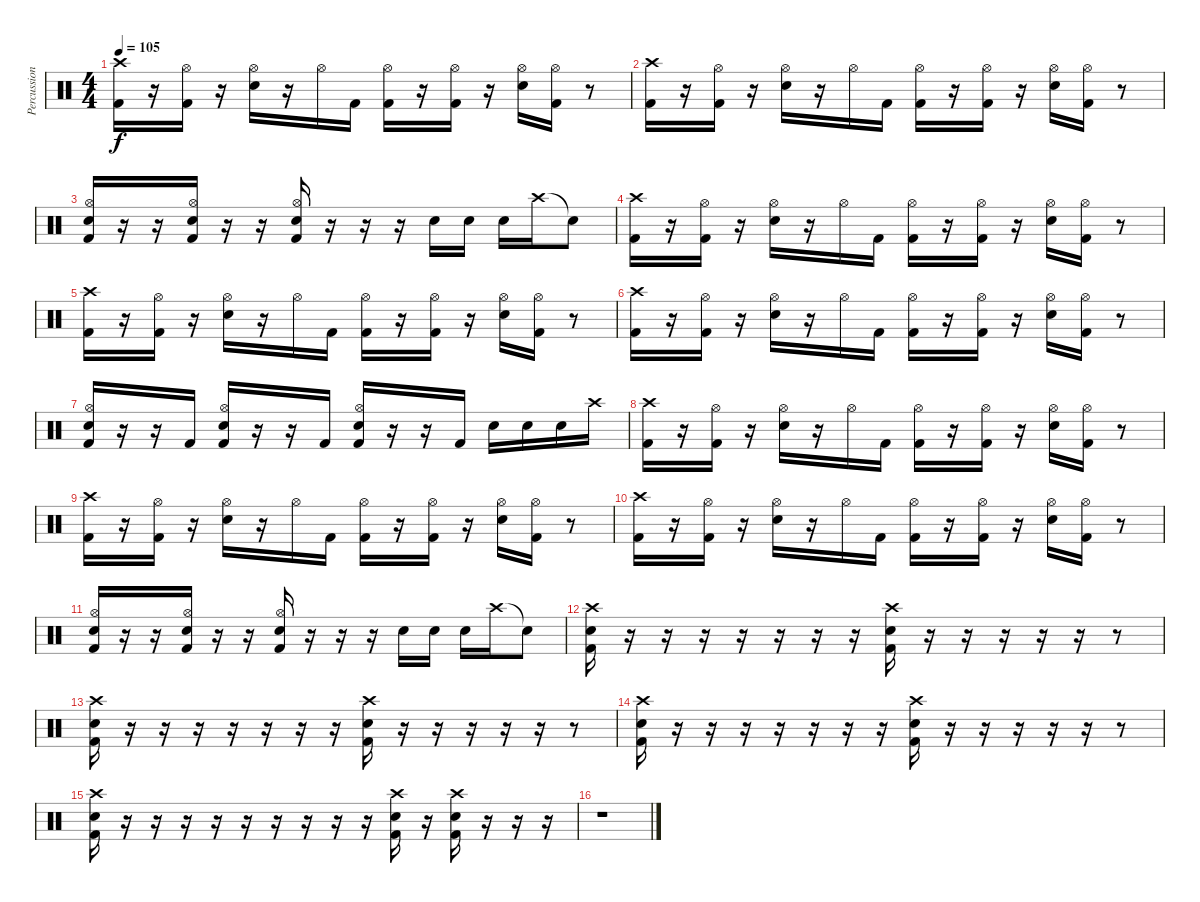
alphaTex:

\track ("Percussions" "Percussion") {instrument percussion}
\staff {score}
\articulation defaults
\ts (4 4)
\tempo 105
\clef neutral
\ks c
("Crash high (hit)" "Kick (hit) 2").16{dy f} r.16 ("Hi-Hat (open)" "Kick (hit) 2").16 r.16 ("Hi-Hat (open)" "Snare (hit) 2").16 r.16 "Hi-Hat (open)".16 "Kick (hit) 2".16 ("Kick (hit) 2" "Hi-Hat (open)").16 r.16 ("Kick (hit) 2" "Hi-Hat (open)").16 r.16 ("Hi-Hat (open)" "Snare (hit) 2").16 ("Kick (hit) 2" "Hi-Hat (open)").16 r.8 |
("Crash high (hit)" "Kick (hit) 2").16 r.16 ("Hi-Hat (open)" "Kick (hit) 2").16 r.16 ("Hi-Hat (open)" "Snare (hit) 2").16 r.16 "Hi-Hat (open)".16 "Kick (hit) 2".16 ("Kick (hit) 2" "Hi-Hat (open)").16 r.16 ("Kick (hit) 2" "Hi-Hat (open)").16 r.16 ("Hi-Hat (open)" "Snare (hit) 2").16 ("Kick (hit) 2" "Hi-Hat (open)").16 r.8 |
("Kick (hit) 2" "Snare (hit) 2" "Hi-Hat (open)").16 r.16 r.16 ("Kick (hit) 2" "Snare (hit) 2" "Hi-Hat (open)").16 r.16 r.16 ("Kick (hit) 2" "Snare (hit) 2" "Hi-Hat (open)").16 r.16 r.16 r.16 "Snare (hit) 2".16 "Snare (hit) 2".16 "Snare (hit) 2".16 "Crash high (hit)".16 "Snare (hit)"{t}.8 |
("Crash high (hit)" "Kick (hit) 2").16 r.16 ("Hi-Hat (open)" "Kick (hit) 2").16 r.16 ("Hi-Hat (open)" "Snare (hit) 2").16 r.16 "Hi-Hat (open)".16 "Kick (hit) 2".16 ("Kick (hit) 2" "Hi-Hat (open)").16 r.16 ("Kick (hit) 2" "Hi-Hat (open)").16 r.16 ("Hi-Hat (open)" "Snare (hit) 2").16 ("Kick (hit) 2" "Hi-Hat (open)").16 r.8 |
("Crash high (hit)" "Kick (hit) 2").16 r.16 ("Hi-Hat (open)" "Kick (hit) 2").16 r.16 ("Hi-Hat (open)" "Snare (hit) 2").16 r.16 "Hi-Hat (open)".16 "Kick (hit) 2".16 ("Kick (hit) 2" "Hi-Hat (open)").16 r.16 ("Kick (hit) 2" "Hi-Hat (open)").16 r.16 ("Hi-Hat (open)" "Snare (hit) 2").16 ("Kick (hit) 2" "Hi-Hat (open)").16 r.8 |
("Crash high (hit)" "Kick (hit) 2").16 r.16 ("Hi-Hat (open)" "Kick (hit) 2").16 r.16 ("Hi-Hat (open)" "Snare (hit) 2").16 r.16 "Hi-Hat (open)".16 "Kick (hit) 2".16 ("Kick (hit) 2" "Hi-Hat (open)").16 r.16 ("Kick (hit) 2" "Hi-Hat (open)").16 r.16 ("Hi-Hat (open)" "Snare (hit) 2").16 ("Kick (hit) 2" "Hi-Hat (open)").16 r.8 |
("Kick (hit) 2" "Snare (hit) 2" "Hi-Hat (open)").16 r.16 r.16 "Kick (hit) 2".16 ("Kick (hit) 2" "Snare (hit) 2" "Hi-Hat (open)").16 r.16 r.16 "Kick (hit) 2".16 ("Kick (hit) 2" "Snare (hit) 2" "Hi-Hat (open)").16 r.16 r.16 "Kick (hit) 2".16 "Snare (hit) 2".16 "Snare (hit) 2".16 "Snare (hit) 2".16 "Crash high (hit)".16 |
("Crash high (hit)" "Kick (hit) 2").16 r.16 ("Hi-Hat (open)" "Kick (hit) 2").16 r.16 ("Hi-Hat (open)" "Snare (hit) 2").16 r.16 "Hi-Hat (open)".16 "Kick (hit) 2".16 ("Kick (hit) 2" "Hi-Hat (open)").16 r.16 ("Kick (hit) 2" "Hi-Hat (open)").16 r.16 ("Hi-Hat (open)" "Snare (hit) 2").16 ("Kick (hit) 2" "Hi-Hat (open)").16 r.8 |
("Crash high (hit)" "Kick (hit) 2").16 r.16 ("Hi-Hat (open)" "Kick (hit) 2").16 r.16 ("Hi-Hat (open)" "Snare (hit) 2").16 r.16 "Hi-Hat (open)".16 "Kick (hit) 2".16 ("Kick (hit) 2" "Hi-Hat (open)").16 r.16 ("Kick (hit) 2" "Hi-Hat (open)").16 r.16 ("Hi-Hat (open)" "Snare (hit) 2").16 ("Kick (hit) 2" "Hi-Hat (open)").16 r.8 |
("Crash high (hit)" "Kick (hit) 2").16 r.16 ("Hi-Hat (open)" "Kick (hit) 2").16 r.16 ("Hi-Hat (open)" "Snare (hit) 2").16 r.16 "Hi-Hat (open)".16 "Kick (hit) 2".16 ("Kick (hit) 2" "Hi-Hat (open)").16 r.16 ("Kick (hit) 2" "Hi-Hat (open)").16 r.16 ("Hi-Hat (open)" "Snare (hit) 2").16 ("Kick (hit) 2" "Hi-Hat (open)").16 r.8 |
("Kick (hit) 2" "Snare (hit) 2" "Hi-Hat (open)").16 r.16 r.16 ("Kick (hit) 2" "Snare (hit) 2" "Hi-Hat (open)").16 r.16 r.16 ("Kick (hit) 2" "Snare (hit) 2" "Hi-Hat (open)").16 r.16 r.16 r.16 "Snare (hit) 2".16 "Snare (hit) 2".16 "Snare (hit) 2".16 "Crash high (hit)".16 "Snare (hit)"{t}.8 |
("Crash high (hit)" "Snare (hit) 2" "Kick (hit) 2").16 r.16 r.16 r.16 r.16 r.16 r.16 r.16 ("Crash high (hit)" "Snare (hit) 2" "Kick (hit) 2").16 r.16 r.16 r.16 r.16 r.16 r.8 |
("Crash high (hit)" "Snare (hit) 2" "Kick (hit) 2").16 r.16 r.16 r.16 r.16 r.16 r.16 r.16 ("Crash high (hit)" "Snare (hit) 2" "Kick (hit) 2").16 r.16 r.16 r.16 r.16 r.16 r.8 |
("Crash high (hit)" "Snare (hit) 2" "Kick (hit) 2").16 r.16 r.16 r.16 r.16 r.16 r.16 r.16 ("Crash high (hit)" "Snare (hit) 2" "Kick (hit) 2").16 r.16 r.16 r.16 r.16 r.16 r.8 |
("Crash high (hit)" "Snare (hit) 2" "Kick (hit) 2").16 r.16 r.16 r.16 r.16 r.16 r.16 r.16 r.16 r.16 ("Crash high (hit)" "Snare (hit) 2" "Kick (hit) 2").16 r.16 ("Crash high (hit)" "Snare (hit) 2" "Kick (hit) 2").16 r.16 r.16 r.16 |
r.1
